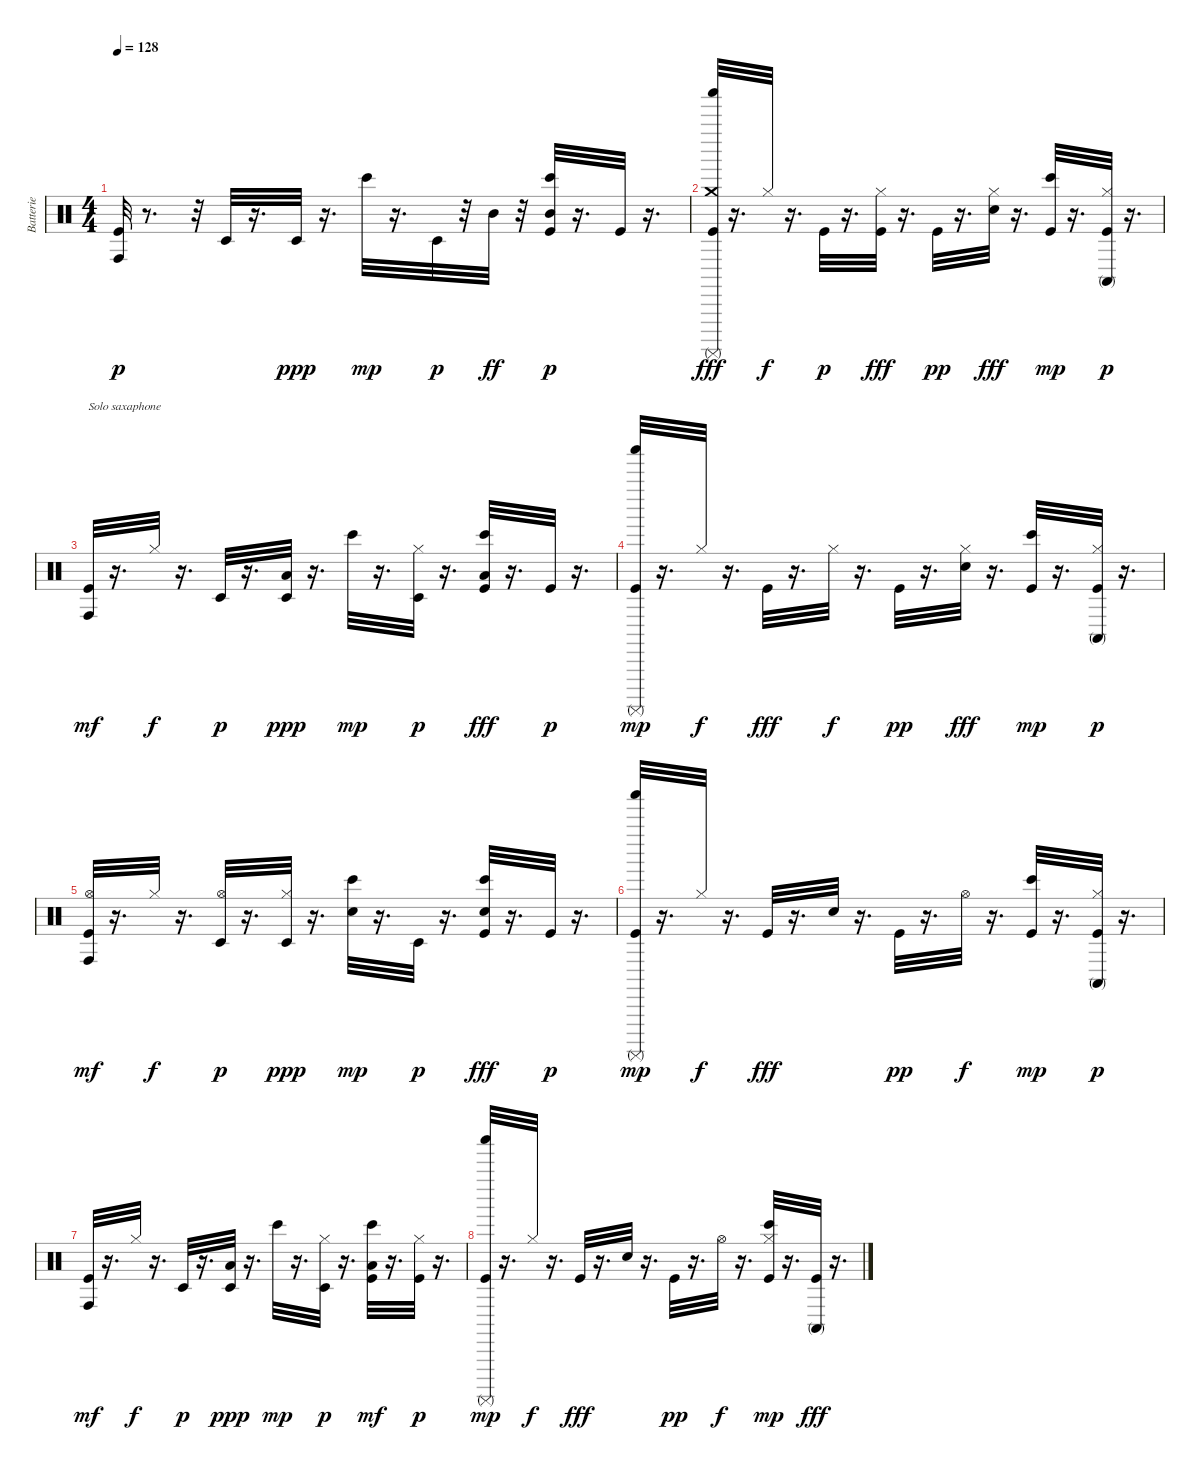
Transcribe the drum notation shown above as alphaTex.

\track ("Batterie" "Batterie") {instrument percussion}
\staff {score}
\articulation defaults
\ts (4 4)
\tempo 128
\clef neutral
\ks c
("Conga high (hit)" "Kick (hit)").32{dy p} r.8{d} r.32 "Timbale low (hit)".32 r.16{d} "Timbale low (hit)".32{dy ppp} r.16{d} "Bongo High (hit)".32{dy mp} r.16{d} "Timbale low (hit)".32{dy p} r.32 "Mid Tom (hit)".32{dy ff} r.32 ("Mid Tom (hit)" "Bongo High (hit)" "Kick (hit)").32{dy p} r.16{d} "Kick (hit)".32 r.16{d} |
("Shaker (hit)" "Crash medium (hit)" "Surdo (mute)" "Kick (hit)").32{dy fff} r.16{d} "Hi-Hat (closed)".32{dy f} r.16{d} "Kick (hit)".32{dy p} r.16{d} ("Kick (hit)" "Hi-Hat (closed)").32{dy fff} r.16{d} "Kick (hit)".32{dy pp} r.16{d} ("Electric Snare (hit)" "Hi-Hat (closed)").32{dy fff} r.16{d} ("Kick (hit)" "Bongo High (hit)").32{dy mp} r.16{d} ("Kick (hit)" "Conga high (mute)" "Hi-Hat (closed)").32{dy p} r.16{d} |
("Kick (hit)" "Conga high (hit)").32{txt "Solo saxaphone" dy mf} r.16{d} "Hi-Hat (closed)".32{dy f} r.16{d} "Timbale low (hit)".32{dy p} r.16{d} ("Low Tom (hit)" "Timbale low (hit)").32{dy ppp} r.16{d} "Bongo High (hit)".32{dy mp} r.16{d} ("Hi-Hat (closed)" "Timbale low (hit)").32{dy p} r.16{d} ("Bongo High (hit)" "Kick (hit)" "Low Floor Tom (hit)").32{dy fff} r.16{d} "Kick (hit)".32{dy p} r.16{d} |
("Kick (hit)" "Shaker (hit)" "Surdo (mute)").32{dy mp} r.16{d} "Hi-Hat (closed)".32{dy f} r.16{d} "Kick (hit)".32{dy fff} r.16{d} "Hi-Hat (closed)".32{dy f} r.16{d} "Kick (hit)".32{dy pp} r.16{d} ("Electric Snare (hit)" "Hi-Hat (closed)").32{dy fff} r.16{d} ("Kick (hit)" "Bongo High (hit)").32{dy mp} r.16{d} ("Conga high (mute)" "Kick (hit)" "Hi-Hat (closed)").32{dy p} r.16{d} |
("Kick (hit)" "Hi-Hat (open)" "Conga high (hit)").32{dy mf} r.16{d} "Hi-Hat (closed)".32{dy f} r.16{d} ("Timbale low (hit)" "Hi-Hat (open)").32{dy p} r.16{d} ("Timbale low (hit)" "Hi-Hat (closed)").32{dy ppp} r.16{d} ("Electric Snare (hit)" "Bongo High (hit)").32{dy mp} r.16{d} "Timbale low (hit)".32{dy p} r.16{d} ("Bongo High (hit)" "Kick (hit)" "Electric Snare (hit)").32{dy fff} r.16{d} "Kick (hit)".32{dy p} r.16{d} |
("Shaker (hit)" "Kick (hit)" "Surdo (mute)").32{dy mp} r.16{d} "Hi-Hat (closed)".32{dy f} r.16{d} "Kick (hit)".32{dy fff} r.16{d} "Electric Snare (hit)".32 r.16{d} "Kick (hit)".32{dy pp} r.16{d} "Hi-Hat (open)".32{dy f} r.16{d} ("Kick (hit)" "Bongo High (hit)").32{dy mp} r.16{d} ("Kick (hit)" "Conga high (mute)" "Hi-Hat (closed)").32{dy p} r.16{d} |
("Kick (hit)" "Conga high (hit)").32{dy mf} r.16{d} "Hi-Hat (closed)".32{dy f} r.16{d} "Timbale low (hit)".32{dy p} r.16{d} ("Low Tom (hit)" "Timbale low (hit)").32{dy ppp} r.16{d} "Bongo High (hit)".32{dy mp} r.16{d} ("Timbale low (hit)" "Hi-Hat (closed)").32{dy p} r.16{d} ("Low Floor Tom (hit)" "Kick (hit)" "Bongo High (hit)").32{dy mf} r.16{d} ("Hi-Hat (closed)" "Kick (hit)").32{dy p} r.16{d} |
("Kick (hit)" "Surdo (mute)" "Shaker (hit)").32{dy mp} r.16{d} "Hi-Hat (closed)".32{dy f} r.16{d} "Kick (hit)".32{dy fff} r.16{d} "Electric Snare (hit)".32 r.16{d} "Kick (hit)".32{dy pp} r.16{d} "Hi-Hat (open)".32{dy f} r.16{d} ("Kick (hit)" "Hi-Hat (closed)" "Bongo High (hit)").32{dy mp} r.16{d} ("Conga high (mute)" "Kick (hit)").32{dy fff} r.16{d}
